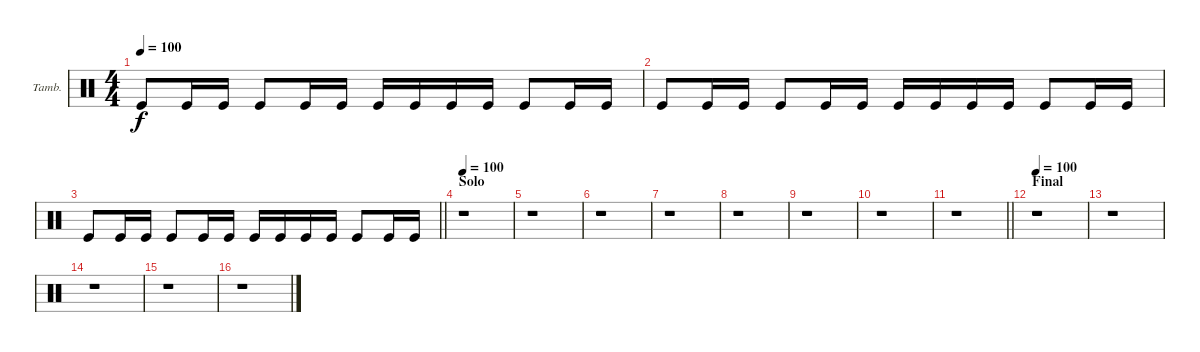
\bracketExtendMode groupsimilarinstruments
\firstSystemTrackNameOrientation horizontal
\otherSystemsTrackNameOrientation horizontal
\track ("Tambourine" "Tamb.") {instrument percussion}
\staff {score}
\articulation defaults
\ts (4 4)
\tempo 100
\clef neutral
\ks c "Kick (hit)".8{dy f} "Kick (hit)".16 "Kick (hit)".16 "Kick (hit)".8 "Kick (hit)".16 "Kick (hit)".16 "Kick (hit)".16 "Kick (hit)".16 "Kick (hit)".16 "Kick (hit)".16 "Kick (hit)".8 "Kick (hit)".16 "Kick (hit)".16
|
"Kick (hit)".8 "Kick (hit)".16 "Kick (hit)".16 "Kick (hit)".8 "Kick (hit)".16 "Kick (hit)".16 "Kick (hit)".16 "Kick (hit)".16 "Kick (hit)".16 "Kick (hit)".16 "Kick (hit)".8 "Kick (hit)".16 "Kick (hit)".16 |
\barLineRight lightlight "Kick (hit)".8 "Kick (hit)".16 "Kick (hit)".16 "Kick (hit)".8 "Kick (hit)".16 "Kick (hit)".16 "Kick (hit)".16 "Kick (hit)".16 "Kick (hit)".16 "Kick (hit)".16 "Kick (hit)".8 "Kick (hit)".16 "Kick (hit)".16
|
\section ("" "Solo")
\tempo 100
r.1 |
r.1 |
r.1 |
r.1 |
r.1 |
r.1 |
r.1 |
\barLineRight lightlight
r.1 |
\section ("" "Final")
\tempo 100
r.1 |
r.1 |
r.1 |
r.1 |
r.1
